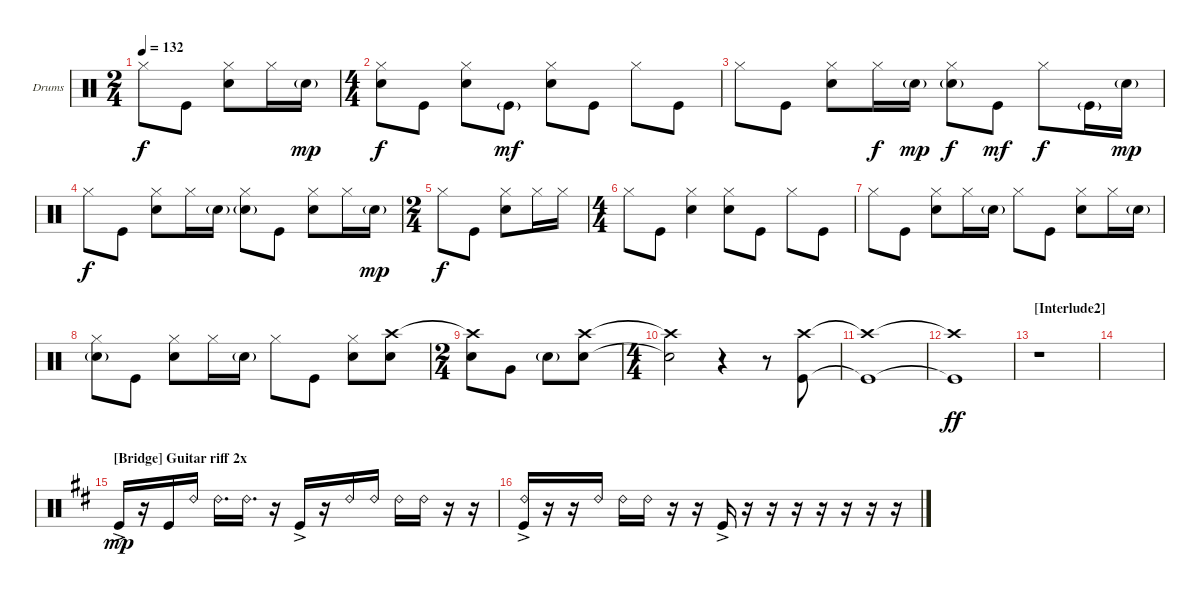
\bracketExtendMode groupsimilarinstruments
\firstSystemTrackNameOrientation horizontal
\otherSystemsTrackNameOrientation horizontal
\track ("Drumkit" "Drums") {instrument percussion}
\staff {score}
\articulation defaults
\ts (2 4)
\tempo 132
\clef neutral
\ks aminor "Hi-Hat (closed)".8{dy f} "Kick (hit)".8
("Hi-Hat (closed)" "Snare (hit) 2").8 "Hi-Hat (closed)".16 "Snare (hit) 2"{g}.16{dy mp} |
\ts (4 4)
("Hi-Hat (closed)" "Snare (hit) 2").8{dy f} "Kick (hit)".8 ("Hi-Hat (closed)" "Snare (hit) 2").8 "Kick (hit)"{g}.8{dy mf} ("Hi-Hat (closed)" "Snare (hit) 2").8 "Kick (hit)".8 "Hi-Hat (closed)".8 "Kick (hit)".8 |
"Hi-Hat (closed)".8 "Kick (hit)".8 ("Hi-Hat (closed)" "Snare (hit) 2").8 "Hi-Hat (closed)".16{dy f} "Snare (hit) 2"{g}.16{dy mp} ("Hi-Hat (closed)" "Snare (hit) 2"{g}).8{dy f} "Kick (hit)".8{dy mf} "Hi-Hat (closed)".8{dy f} "Kick (hit)"{g}.16 "Snare (hit) 2"{g}.16{dy mp} |
"Hi-Hat (closed)".8{dy f} "Kick (hit)".8 ("Hi-Hat (closed)" "Snare (hit) 2").8 "Hi-Hat (closed)".16 "Snare (hit) 2"{g}.16 ("Hi-Hat (closed)" "Snare (hit) 2"{g}).8 "Kick (hit)".8 ("Hi-Hat (closed)" "Snare (hit) 2").8 "Hi-Hat (closed)".16 "Snare (hit) 2"{g}.16{dy mp} |
\ts (2 4)
"Hi-Hat (closed)".8{dy f} "Kick (hit)".8 ("Hi-Hat (closed)" "Snare (hit) 2").8 "Hi-Hat (closed)".16 "Hi-Hat (closed)".16 |
\ts (4 4)
"Hi-Hat (closed)".8 "Kick (hit)".8 ("Hi-Hat (closed)" "Snare (hit) 2").4 ("Hi-Hat (closed)" "Snare (hit) 2").8 "Kick (hit)".8 "Hi-Hat (closed)".8 "Kick (hit)".8 |
"Hi-Hat (closed)".8 "Kick (hit)".8 ("Hi-Hat (closed)" "Snare (hit) 2").8 "Hi-Hat (closed)".16 "Snare (hit) 2"{g}.16 "Hi-Hat (closed)".8 "Kick (hit)".8 ("Hi-Hat (closed)" "Snare (hit) 2").8 "Hi-Hat (closed)".16 "Snare (hit) 2"{g}.16 |
("Hi-Hat (closed)" "Snare (hit) 2"{g}).8 "Kick (hit)".8 ("Hi-Hat (closed)" "Snare (hit) 2").8 "Hi-Hat (closed)".16 "Snare (hit) 2"{g}.16 "Hi-Hat (closed)".8 "Kick (hit)".8 ("Hi-Hat (closed)" "Snare (hit) 2").8 ("Snare (hit) 2" "Crash high (hit)").8 |
\ts (2 4)
("Snare (hit) 2" "Crash high (hit)"{t}).8 "Very Low Tom (hit)".8 "Snare (hit) 2"{g}.8 ("Crash high (hit)" "Snare (hit) 2").8 |
\ts (4 4)
("Crash high (hit)"{t} "Snare (hit) 2"{t}).2 r.4 r.8 ("Crash high (hit)" "Kick (hit)").8 |
("Crash high (hit)"{t} "Kick (hit)"{t}).1 |
("Crash high (hit)"{t} "Kick (hit)"{t}).1{dy ff} |
\section ("" "[Interlude2] ")
r.1 |
|
\section ("" "[Bridge] Guitar riff 2x")
\ks bminor "Kick (hit)"{ac}.16{dy mp}
r.16 "Kick (hit)".16 "Ride (bell) 2".16 "Ride (bell) 2".16{d} "Ride (bell) 2".16{d} r.16 "Kick (hit)"{ac}.16 r.16 "Ride (bell) 2".16 "Ride (bell) 2".16 "Ride (bell) 2".16 "Ride (bell) 2".16 r.16 r.16 |
("Ride (bell) 2" "Kick (hit)"{ac}).16 r.16 r.16 "Ride (bell) 2".16 "Ride (bell) 2".16 "Ride (bell) 2".16 r.16 r.16 "Kick (hit)"{ac}.16 r.16 r.16 r.16 r.16 r.16 r.16 r.16
